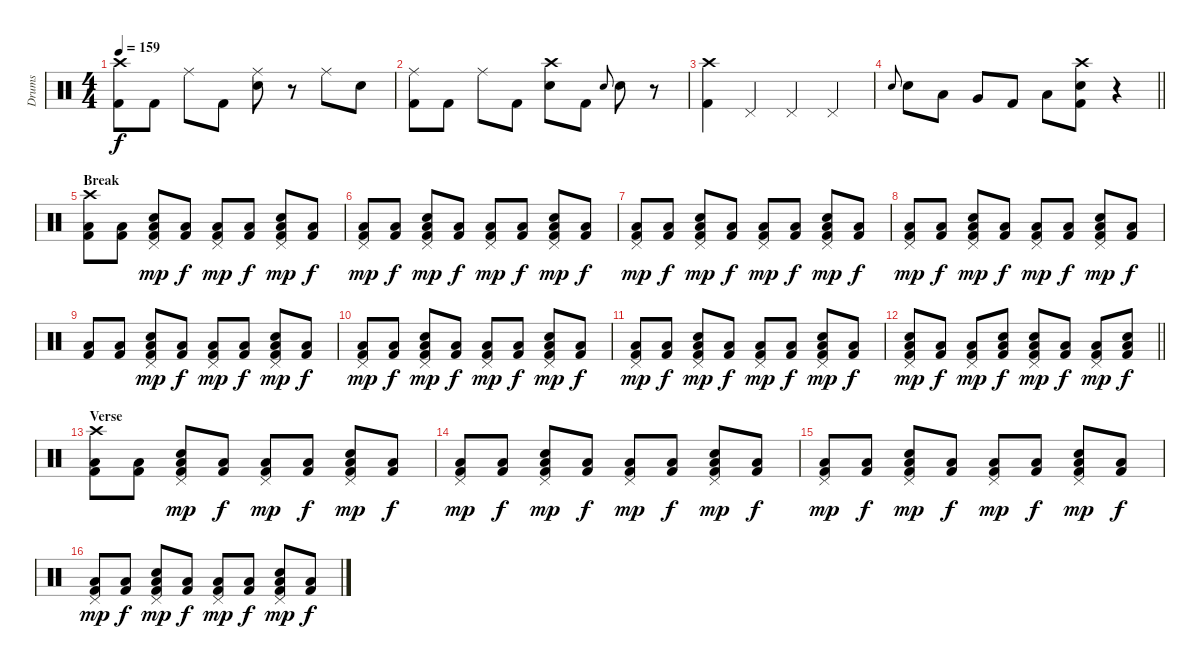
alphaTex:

\track ("Drums" "Drums") {instrument percussion}
\staff {score}
\articulation defaults
\ts (4 4)
\tempo 159
\clef neutral
\ks c
("Crash high (hit)" "Kick (hit) 2").8{dy f} "Kick (hit) 2".8 "Ride (middle)".8 "Kick (hit) 2".8 ("Ride (middle)" "Electric Snare (hit)").8 r.8 "Ride (middle)".8 "Electric Snare (hit)".8 |
("Ride (middle)" "Kick (hit) 2").8 "Kick (hit) 2".8 "Ride (middle)".8 "Kick (hit) 2".8 ("Crash high (hit)" "Electric Snare (hit)").8 "Kick (hit) 2".8 "Electric Snare (hit)".8{gr onbeat} "Electric Snare (hit)".8 r.8 |
("Crash high (hit)" "Kick (hit) 2").4 "Pedal Hi-Hat (hit)".4 "Pedal Hi-Hat (hit)".4 "Pedal Hi-Hat (hit)".4 |
\barLineRight lightlight "Electric Snare (hit)".8{gr onbeat} "Electric Snare (hit)".8 "Low Tom (hit)".8 "Very Low Tom (hit)".8 "Kick (hit) 2".8 "Low Floor Tom (hit)".8
("Crash high (hit)" "Electric Snare (hit)" "Kick (hit) 2").8 r.4 |
\section ("" "Break")
("Crash high (hit)" "Low Floor Tom (hit)" "Kick (hit) 2").8 ("Low Floor Tom (hit)" "Kick (hit) 2").8 ("Pedal Hi-Hat (hit)" "Electric Snare (hit)" "Low Floor Tom (hit)" "Kick (hit) 2").8{dy mp} ("Low Floor Tom (hit)" "Kick (hit) 2").8{dy f} ("Pedal Hi-Hat (hit)" "Low Floor Tom (hit)" "Kick (hit) 2").8{dy mp} ("Low Floor Tom (hit)" "Kick (hit) 2").8{dy f} ("Pedal Hi-Hat (hit)" "Electric Snare (hit)" "Low Floor Tom (hit)" "Kick (hit) 2").8{dy mp} ("Low Floor Tom (hit)" "Kick (hit) 2").8{dy f} |
("Pedal Hi-Hat (hit)" "Low Floor Tom (hit)" "Kick (hit) 2").8{dy mp} ("Low Floor Tom (hit)" "Kick (hit) 2").8{dy f} ("Pedal Hi-Hat (hit)" "Electric Snare (hit)" "Low Floor Tom (hit)" "Kick (hit) 2").8{dy mp} ("Low Floor Tom (hit)" "Kick (hit) 2").8{dy f} ("Pedal Hi-Hat (hit)" "Low Floor Tom (hit)" "Kick (hit) 2").8{dy mp} ("Low Floor Tom (hit)" "Kick (hit) 2").8{dy f} ("Pedal Hi-Hat (hit)" "Electric Snare (hit)" "Low Floor Tom (hit)" "Kick (hit) 2").8{dy mp} ("Low Floor Tom (hit)" "Kick (hit) 2").8{dy f} |
("Pedal Hi-Hat (hit)" "Low Floor Tom (hit)" "Kick (hit) 2").8{dy mp} ("Low Floor Tom (hit)" "Kick (hit) 2").8{dy f} ("Pedal Hi-Hat (hit)" "Electric Snare (hit)" "Low Floor Tom (hit)" "Kick (hit) 2").8{dy mp} ("Low Floor Tom (hit)" "Kick (hit) 2").8{dy f} ("Pedal Hi-Hat (hit)" "Low Floor Tom (hit)" "Kick (hit) 2").8{dy mp} ("Low Floor Tom (hit)" "Kick (hit) 2").8{dy f} ("Pedal Hi-Hat (hit)" "Electric Snare (hit)" "Low Floor Tom (hit)" "Kick (hit) 2").8{dy mp} ("Low Floor Tom (hit)" "Kick (hit) 2").8{dy f} |
("Pedal Hi-Hat (hit)" "Low Floor Tom (hit)" "Kick (hit) 2").8{dy mp} ("Low Floor Tom (hit)" "Kick (hit) 2").8{dy f} ("Pedal Hi-Hat (hit)" "Electric Snare (hit)" "Low Floor Tom (hit)" "Kick (hit) 2").8{dy mp} ("Low Floor Tom (hit)" "Kick (hit) 2").8{dy f} ("Pedal Hi-Hat (hit)" "Low Floor Tom (hit)" "Kick (hit) 2").8{dy mp} ("Low Floor Tom (hit)" "Kick (hit) 2").8{dy f} ("Pedal Hi-Hat (hit)" "Electric Snare (hit)" "Low Floor Tom (hit)" "Kick (hit) 2").8{dy mp} ("Low Floor Tom (hit)" "Kick (hit) 2").8{dy f} |
("Low Floor Tom (hit)" "Kick (hit) 2").8 ("Low Floor Tom (hit)" "Kick (hit) 2").8 ("Pedal Hi-Hat (hit)" "Electric Snare (hit)" "Low Floor Tom (hit)" "Kick (hit) 2").8{dy mp} ("Low Floor Tom (hit)" "Kick (hit) 2").8{dy f} ("Pedal Hi-Hat (hit)" "Low Floor Tom (hit)" "Kick (hit) 2").8{dy mp} ("Low Floor Tom (hit)" "Kick (hit) 2").8{dy f} ("Pedal Hi-Hat (hit)" "Electric Snare (hit)" "Low Floor Tom (hit)" "Kick (hit) 2").8{dy mp} ("Low Floor Tom (hit)" "Kick (hit) 2").8{dy f} |
("Pedal Hi-Hat (hit)" "Low Floor Tom (hit)" "Kick (hit) 2").8{dy mp} ("Low Floor Tom (hit)" "Kick (hit) 2").8{dy f} ("Pedal Hi-Hat (hit)" "Electric Snare (hit)" "Low Floor Tom (hit)" "Kick (hit) 2").8{dy mp} ("Low Floor Tom (hit)" "Kick (hit) 2").8{dy f} ("Pedal Hi-Hat (hit)" "Low Floor Tom (hit)" "Kick (hit) 2").8{dy mp} ("Low Floor Tom (hit)" "Kick (hit) 2").8{dy f} ("Pedal Hi-Hat (hit)" "Electric Snare (hit)" "Low Floor Tom (hit)" "Kick (hit) 2").8{dy mp} ("Low Floor Tom (hit)" "Kick (hit) 2").8{dy f} |
("Pedal Hi-Hat (hit)" "Low Floor Tom (hit)" "Kick (hit) 2").8{dy mp} ("Low Floor Tom (hit)" "Kick (hit) 2").8{dy f} ("Pedal Hi-Hat (hit)" "Electric Snare (hit)" "Low Floor Tom (hit)" "Kick (hit) 2").8{dy mp} ("Low Floor Tom (hit)" "Kick (hit) 2").8{dy f} ("Pedal Hi-Hat (hit)" "Low Floor Tom (hit)" "Kick (hit) 2").8{dy mp} ("Low Floor Tom (hit)" "Kick (hit) 2").8{dy f} ("Pedal Hi-Hat (hit)" "Electric Snare (hit)" "Low Floor Tom (hit)" "Kick (hit) 2").8{dy mp} ("Low Floor Tom (hit)" "Kick (hit) 2").8{dy f} |
\barLineRight lightlight
("Pedal Hi-Hat (hit)" "Electric Snare (hit)" "Low Floor Tom (hit)" "Kick (hit) 2").8{dy mp} ("Low Floor Tom (hit)" "Kick (hit) 2").8{dy f} ("Pedal Hi-Hat (hit)" "Low Floor Tom (hit)" "Kick (hit) 2").8{dy mp} ("Electric Snare (hit)" "Low Floor Tom (hit)" "Kick (hit) 2").8{dy f} ("Pedal Hi-Hat (hit)" "Electric Snare (hit)" "Low Floor Tom (hit)" "Kick (hit) 2").8{dy mp} ("Low Floor Tom (hit)" "Kick (hit) 2").8{dy f} ("Pedal Hi-Hat (hit)" "Low Floor Tom (hit)" "Kick (hit) 2").8{dy mp} ("Electric Snare (hit)" "Low Floor Tom (hit)" "Kick (hit) 2").8{dy f} |
\section ("" "Verse")
("Crash high (hit)" "Low Floor Tom (hit)" "Kick (hit) 2").8 ("Low Floor Tom (hit)" "Kick (hit) 2").8 ("Pedal Hi-Hat (hit)" "Electric Snare (hit)" "Low Floor Tom (hit)" "Kick (hit) 2").8{dy mp} ("Low Floor Tom (hit)" "Kick (hit) 2").8{dy f} ("Pedal Hi-Hat (hit)" "Low Floor Tom (hit)" "Kick (hit) 2").8{dy mp} ("Low Floor Tom (hit)" "Kick (hit) 2").8{dy f} ("Pedal Hi-Hat (hit)" "Electric Snare (hit)" "Low Floor Tom (hit)" "Kick (hit) 2").8{dy mp} ("Low Floor Tom (hit)" "Kick (hit) 2").8{dy f} |
("Pedal Hi-Hat (hit)" "Low Floor Tom (hit)" "Kick (hit) 2").8{dy mp} ("Low Floor Tom (hit)" "Kick (hit) 2").8{dy f} ("Pedal Hi-Hat (hit)" "Electric Snare (hit)" "Low Floor Tom (hit)" "Kick (hit) 2").8{dy mp} ("Low Floor Tom (hit)" "Kick (hit) 2").8{dy f} ("Pedal Hi-Hat (hit)" "Low Floor Tom (hit)" "Kick (hit) 2").8{dy mp} ("Low Floor Tom (hit)" "Kick (hit) 2").8{dy f} ("Pedal Hi-Hat (hit)" "Electric Snare (hit)" "Low Floor Tom (hit)" "Kick (hit) 2").8{dy mp} ("Low Floor Tom (hit)" "Kick (hit) 2").8{dy f} |
("Pedal Hi-Hat (hit)" "Low Floor Tom (hit)" "Kick (hit) 2").8{dy mp} ("Low Floor Tom (hit)" "Kick (hit) 2").8{dy f} ("Pedal Hi-Hat (hit)" "Electric Snare (hit)" "Low Floor Tom (hit)" "Kick (hit) 2").8{dy mp} ("Low Floor Tom (hit)" "Kick (hit) 2").8{dy f} ("Pedal Hi-Hat (hit)" "Low Floor Tom (hit)" "Kick (hit) 2").8{dy mp} ("Low Floor Tom (hit)" "Kick (hit) 2").8{dy f} ("Pedal Hi-Hat (hit)" "Electric Snare (hit)" "Low Floor Tom (hit)" "Kick (hit) 2").8{dy mp} ("Low Floor Tom (hit)" "Kick (hit) 2").8{dy f} |
("Pedal Hi-Hat (hit)" "Low Floor Tom (hit)" "Kick (hit) 2").8{dy mp} ("Low Floor Tom (hit)" "Kick (hit) 2").8{dy f} ("Pedal Hi-Hat (hit)" "Electric Snare (hit)" "Low Floor Tom (hit)" "Kick (hit) 2").8{dy mp} ("Low Floor Tom (hit)" "Kick (hit) 2").8{dy f} ("Pedal Hi-Hat (hit)" "Low Floor Tom (hit)" "Kick (hit) 2").8{dy mp} ("Low Floor Tom (hit)" "Kick (hit) 2").8{dy f} ("Pedal Hi-Hat (hit)" "Electric Snare (hit)" "Low Floor Tom (hit)" "Kick (hit) 2").8{dy mp} ("Low Floor Tom (hit)" "Kick (hit) 2").8{dy f}
